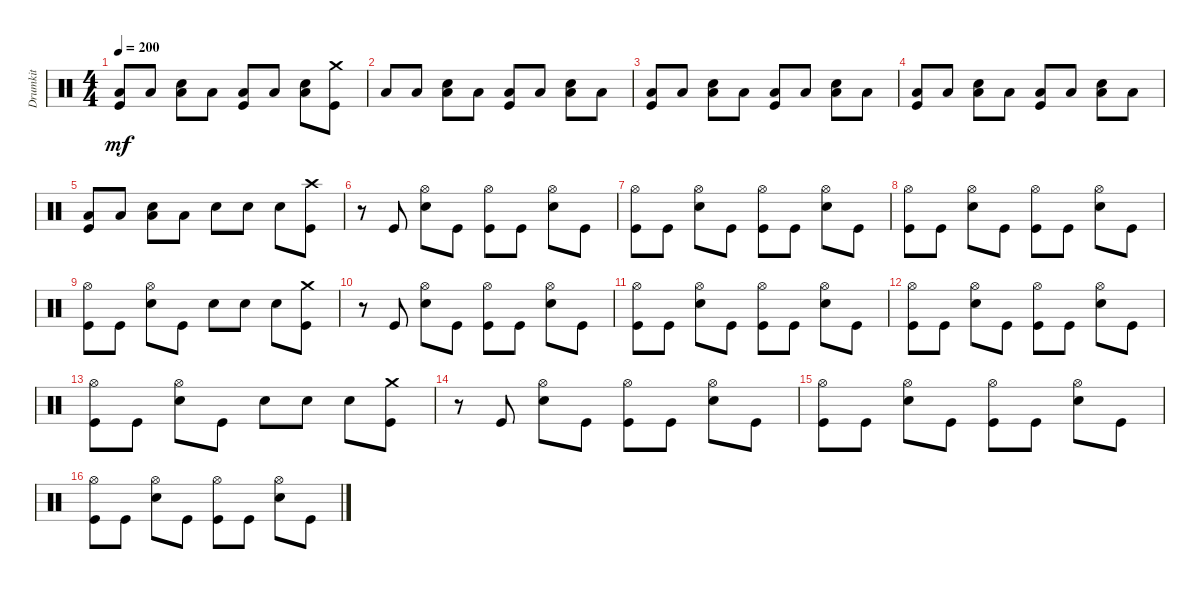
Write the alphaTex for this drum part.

\track ("Drumkit" "Drumkit") {instrument percussion}
\staff {score}
\articulation defaults
\ts (4 4)
\tempo 200
\clef neutral
\ks c
("Low Floor Tom (hit)" "Kick (hit)").8{dy mf} "Low Floor Tom (hit)".8 ("Low Floor Tom (hit)" "Snare (hit) 2").8 "Low Floor Tom (hit)".8 ("Low Floor Tom (hit)" "Kick (hit)").8 "Low Floor Tom (hit)".8 ("Low Floor Tom (hit)" "Snare (hit) 2").8 ("Kick (hit)" "Crash medium (hit)").8 |
"Low Floor Tom (hit)".8 "Low Floor Tom (hit)".8 ("Low Floor Tom (hit)" "Snare (hit) 2").8 "Low Floor Tom (hit)".8 ("Low Floor Tom (hit)" "Kick (hit)").8 "Low Floor Tom (hit)".8 ("Low Floor Tom (hit)" "Snare (hit) 2").8 "Low Floor Tom (hit)".8 |
("Low Floor Tom (hit)" "Kick (hit)").8 "Low Floor Tom (hit)".8 ("Low Floor Tom (hit)" "Snare (hit) 2").8 "Low Floor Tom (hit)".8 ("Low Floor Tom (hit)" "Kick (hit)").8 "Low Floor Tom (hit)".8 ("Low Floor Tom (hit)" "Snare (hit) 2").8 "Low Floor Tom (hit)".8 |
("Low Floor Tom (hit)" "Kick (hit)").8 "Low Floor Tom (hit)".8 ("Low Floor Tom (hit)" "Snare (hit) 2").8 "Low Floor Tom (hit)".8 ("Low Floor Tom (hit)" "Kick (hit)").8 "Low Floor Tom (hit)".8 ("Low Floor Tom (hit)" "Snare (hit) 2").8 "Low Floor Tom (hit)".8 |
("Low Floor Tom (hit)" "Kick (hit)").8 "Low Floor Tom (hit)".8 ("Low Floor Tom (hit)" "Snare (hit) 2").8 "Low Floor Tom (hit)".8 "Snare (hit) 2".8 "Snare (hit) 2".8 "Snare (hit) 2".8 ("Kick (hit)" "Crash high (hit)").8 |
r.8 "Kick (hit)".8 ("Hi-Hat (open)" "Snare (hit) 2").8 "Kick (hit)".8 ("Kick (hit)" "Hi-Hat (open)").8 "Kick (hit)".8 ("Snare (hit) 2" "Hi-Hat (open)").8 "Kick (hit)".8 |
("Kick (hit)" "Hi-Hat (open)").8 "Kick (hit)".8 ("Hi-Hat (open)" "Snare (hit) 2").8 "Kick (hit)".8 ("Kick (hit)" "Hi-Hat (open)").8 "Kick (hit)".8 ("Snare (hit) 2" "Hi-Hat (open)").8 "Kick (hit)".8 |
("Kick (hit)" "Hi-Hat (open)").8 "Kick (hit)".8 ("Hi-Hat (open)" "Snare (hit) 2").8 "Kick (hit)".8 ("Kick (hit)" "Hi-Hat (open)").8 "Kick (hit)".8 ("Snare (hit) 2" "Hi-Hat (open)").8 "Kick (hit)".8 |
("Kick (hit)" "Hi-Hat (open)").8 "Kick (hit)".8 ("Hi-Hat (open)" "Snare (hit) 2").8 "Kick (hit)".8 "Snare (hit) 2".8 "Snare (hit) 2".8 "Snare (hit) 2".8 ("Kick (hit)" "Crash medium (hit)").8 |
r.8 "Kick (hit)".8 ("Hi-Hat (open)" "Snare (hit) 2").8 "Kick (hit)".8 ("Kick (hit)" "Hi-Hat (open)").8 "Kick (hit)".8 ("Snare (hit) 2" "Hi-Hat (open)").8 "Kick (hit)".8 |
("Kick (hit)" "Hi-Hat (open)").8 "Kick (hit)".8 ("Hi-Hat (open)" "Snare (hit) 2").8 "Kick (hit)".8 ("Kick (hit)" "Hi-Hat (open)").8 "Kick (hit)".8 ("Snare (hit) 2" "Hi-Hat (open)").8 "Kick (hit)".8 |
("Kick (hit)" "Hi-Hat (open)").8 "Kick (hit)".8 ("Hi-Hat (open)" "Snare (hit) 2").8 "Kick (hit)".8 ("Kick (hit)" "Hi-Hat (open)").8 "Kick (hit)".8 ("Snare (hit) 2" "Hi-Hat (open)").8 "Kick (hit)".8 |
("Kick (hit)" "Hi-Hat (open)").8 "Kick (hit)".8 ("Hi-Hat (open)" "Snare (hit) 2").8 "Kick (hit)".8 "Snare (hit) 2".8 "Snare (hit) 2".8 "Snare (hit) 2".8 ("Kick (hit)" "Crash medium (hit)").8 |
r.8 "Kick (hit)".8 ("Hi-Hat (open)" "Snare (hit) 2").8 "Kick (hit)".8 ("Kick (hit)" "Hi-Hat (open)").8 "Kick (hit)".8 ("Snare (hit) 2" "Hi-Hat (open)").8 "Kick (hit)".8 |
("Kick (hit)" "Hi-Hat (open)").8 "Kick (hit)".8 ("Hi-Hat (open)" "Snare (hit) 2").8 "Kick (hit)".8 ("Kick (hit)" "Hi-Hat (open)").8 "Kick (hit)".8 ("Snare (hit) 2" "Hi-Hat (open)").8 "Kick (hit)".8 |
("Kick (hit)" "Hi-Hat (open)").8 "Kick (hit)".8 ("Hi-Hat (open)" "Snare (hit) 2").8 "Kick (hit)".8 ("Kick (hit)" "Hi-Hat (open)").8 "Kick (hit)".8 ("Snare (hit) 2" "Hi-Hat (open)").8 "Kick (hit)".8
